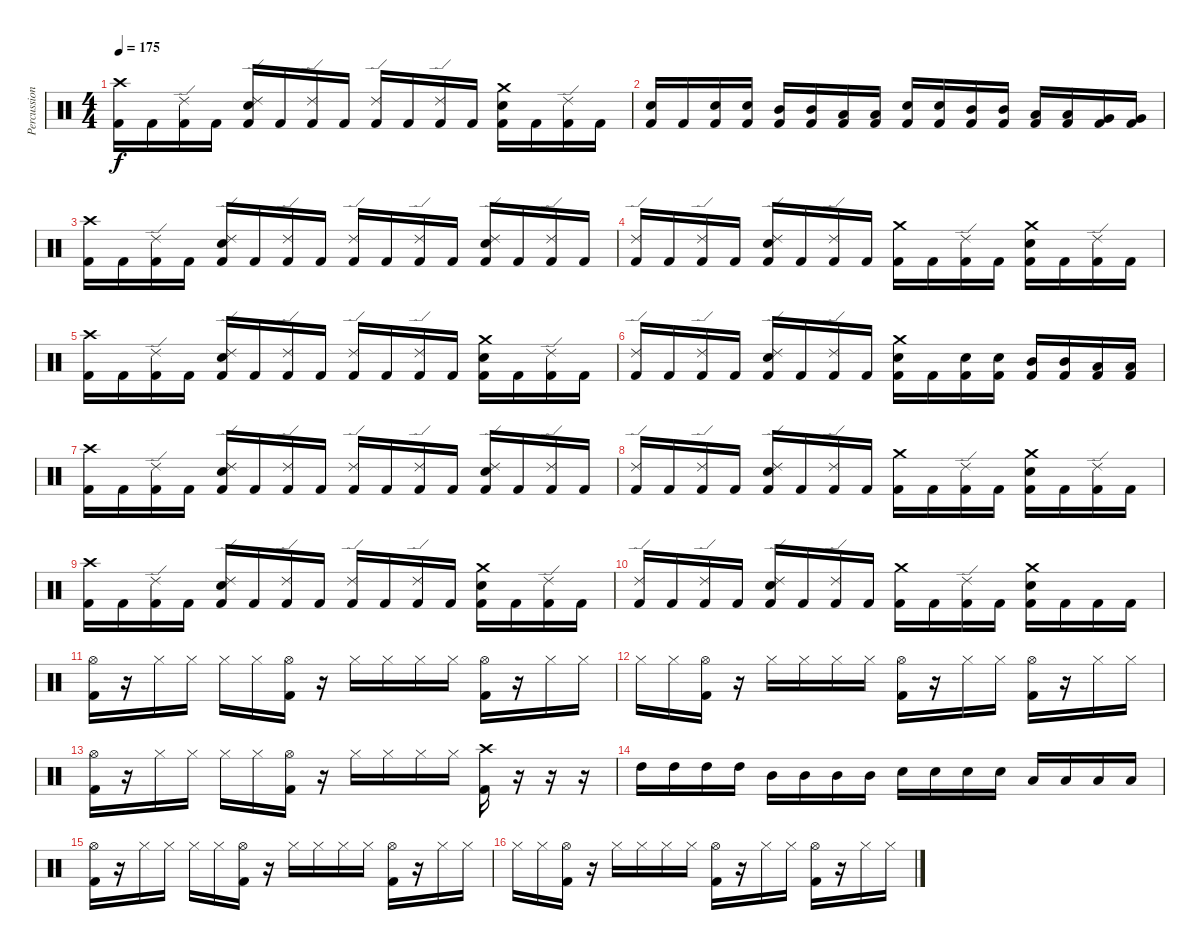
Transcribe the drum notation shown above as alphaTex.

\track ("Percussion" "Percussion") {instrument percussion}
\staff {score}
\articulation defaults
\ts (4 4)
\tempo 175
\clef neutral
\ks c
("Crash high (hit)" "Kick (hit) 2").16{dy f} "Kick (hit) 2".16 ("Ride (edge) 2" "Kick (hit) 2").16 "Kick (hit) 2".16 ("Ride (edge) 2" "Snare (hit) 2" "Kick (hit) 2").16 "Kick (hit) 2".16 ("Ride (edge) 2" "Kick (hit) 2").16 "Kick (hit) 2".16 ("Ride (edge) 2" "Kick (hit) 2").16 "Kick (hit) 2".16 ("Ride (edge) 2" "Kick (hit) 2").16 "Kick (hit) 2".16 ("Crash medium (hit)" "Snare (hit) 2" "Kick (hit) 2").16 "Kick (hit) 2".16 ("Ride (edge) 2" "Kick (hit) 2").16 "Kick (hit) 2".16 |
("Snare (hit) 2" "Kick (hit) 2").16 "Kick (hit) 2".16 ("Snare (hit) 2" "Kick (hit) 2").16 ("Snare (hit) 2" "Kick (hit) 2").16 ("Mid Tom (hit)" "Kick (hit) 2").16 ("Mid Tom (hit)" "Kick (hit) 2").16 ("Low Tom (hit)" "Kick (hit) 2").16 ("Low Tom (hit)" "Kick (hit) 2").16 ("Snare (hit) 2" "Kick (hit) 2").16 ("Snare (hit) 2" "Kick (hit) 2").16 ("Mid Tom (hit)" "Kick (hit) 2").16 ("Mid Tom (hit)" "Kick (hit) 2").16 ("Low Tom (hit)" "Kick (hit) 2").16 ("Low Tom (hit)" "Kick (hit) 2").16 ("Very Low Tom (hit)" "Kick (hit) 2").16 ("Very Low Tom (hit)" "Kick (hit) 2").16 |
("Crash high (hit)" "Kick (hit) 2").16 "Kick (hit) 2".16 ("Ride (edge) 2" "Kick (hit) 2").16 "Kick (hit) 2".16 ("Ride (edge) 2" "Snare (hit) 2" "Kick (hit) 2").16 "Kick (hit) 2".16 ("Ride (edge) 2" "Kick (hit) 2").16 "Kick (hit) 2".16 ("Ride (edge) 2" "Kick (hit) 2").16 "Kick (hit) 2".16 ("Ride (edge) 2" "Kick (hit) 2").16 "Kick (hit) 2".16 ("Ride (edge) 2" "Snare (hit) 2" "Kick (hit) 2").16 "Kick (hit) 2".16 ("Ride (edge) 2" "Kick (hit) 2").16 "Kick (hit) 2".16 |
("Ride (edge) 2" "Kick (hit) 2").16 "Kick (hit) 2".16 ("Ride (edge) 2" "Kick (hit) 2").16 "Kick (hit) 2".16 ("Ride (edge) 2" "Snare (hit) 2" "Kick (hit) 2").16 "Kick (hit) 2".16 ("Ride (edge) 2" "Kick (hit) 2").16 "Kick (hit) 2".16 ("Crash medium (hit)" "Kick (hit) 2").16 "Kick (hit) 2".16 ("Ride (edge) 2" "Kick (hit) 2").16 "Kick (hit) 2".16 ("Crash medium (hit)" "Snare (hit) 2" "Kick (hit) 2").16 "Kick (hit) 2".16 ("Ride (edge) 2" "Kick (hit) 2").16 "Kick (hit) 2".16 |
("Crash high (hit)" "Kick (hit) 2").16 "Kick (hit) 2".16 ("Ride (edge) 2" "Kick (hit) 2").16 "Kick (hit) 2".16 ("Ride (edge) 2" "Snare (hit) 2" "Kick (hit) 2").16 "Kick (hit) 2".16 ("Ride (edge) 2" "Kick (hit) 2").16 "Kick (hit) 2".16 ("Ride (edge) 2" "Kick (hit) 2").16 "Kick (hit) 2".16 ("Ride (edge) 2" "Kick (hit) 2").16 "Kick (hit) 2".16 ("Crash medium (hit)" "Snare (hit) 2" "Kick (hit) 2").16 "Kick (hit) 2".16 ("Ride (edge) 2" "Kick (hit) 2").16 "Kick (hit) 2".16 |
("Ride (edge) 2" "Kick (hit) 2").16 "Kick (hit) 2".16 ("Ride (edge) 2" "Kick (hit) 2").16 "Kick (hit) 2".16 ("Ride (edge) 2" "Snare (hit) 2" "Kick (hit) 2").16 "Kick (hit) 2".16 ("Ride (edge) 2" "Kick (hit) 2").16 "Kick (hit) 2".16 ("Crash medium (hit)" "Snare (hit) 2" "Kick (hit) 2").16 "Kick (hit) 2".16 ("Snare (hit) 2" "Kick (hit) 2").16 ("Snare (hit) 2" "Kick (hit) 2").16 ("Mid Tom (hit)" "Kick (hit) 2").16 ("Mid Tom (hit)" "Kick (hit) 2").16 ("Low Tom (hit)" "Kick (hit) 2").16 ("Low Tom (hit)" "Kick (hit) 2").16 |
("Crash high (hit)" "Kick (hit) 2").16 "Kick (hit) 2".16 ("Ride (edge) 2" "Kick (hit) 2").16 "Kick (hit) 2".16 ("Ride (edge) 2" "Snare (hit) 2" "Kick (hit) 2").16 "Kick (hit) 2".16 ("Ride (edge) 2" "Kick (hit) 2").16 "Kick (hit) 2".16 ("Ride (edge) 2" "Kick (hit) 2").16 "Kick (hit) 2".16 ("Ride (edge) 2" "Kick (hit) 2").16 "Kick (hit) 2".16 ("Ride (edge) 2" "Snare (hit) 2" "Kick (hit) 2").16 "Kick (hit) 2".16 ("Ride (edge) 2" "Kick (hit) 2").16 "Kick (hit) 2".16 |
("Ride (edge) 2" "Kick (hit) 2").16 "Kick (hit) 2".16 ("Ride (edge) 2" "Kick (hit) 2").16 "Kick (hit) 2".16 ("Ride (edge) 2" "Snare (hit) 2" "Kick (hit) 2").16 "Kick (hit) 2".16 ("Ride (edge) 2" "Kick (hit) 2").16 "Kick (hit) 2".16 ("Crash medium (hit)" "Kick (hit) 2").16 "Kick (hit) 2".16 ("Ride (edge) 2" "Kick (hit) 2").16 "Kick (hit) 2".16 ("Crash medium (hit)" "Snare (hit) 2" "Kick (hit) 2").16 "Kick (hit) 2".16 ("Ride (edge) 2" "Kick (hit) 2").16 "Kick (hit) 2".16 |
("Crash high (hit)" "Kick (hit) 2").16 "Kick (hit) 2".16 ("Ride (edge) 2" "Kick (hit) 2").16 "Kick (hit) 2".16 ("Ride (edge) 2" "Snare (hit) 2" "Kick (hit) 2").16 "Kick (hit) 2".16 ("Ride (edge) 2" "Kick (hit) 2").16 "Kick (hit) 2".16 ("Ride (edge) 2" "Kick (hit) 2").16 "Kick (hit) 2".16 ("Ride (edge) 2" "Kick (hit) 2").16 "Kick (hit) 2".16 ("Crash medium (hit)" "Snare (hit) 2" "Kick (hit) 2").16 "Kick (hit) 2".16 ("Ride (edge) 2" "Kick (hit) 2").16 "Kick (hit) 2".16 |
("Ride (edge) 2" "Kick (hit) 2").16 "Kick (hit) 2".16 ("Ride (edge) 2" "Kick (hit) 2").16 "Kick (hit) 2".16 ("Ride (edge) 2" "Snare (hit) 2" "Kick (hit) 2").16 "Kick (hit) 2".16 ("Ride (edge) 2" "Kick (hit) 2").16 "Kick (hit) 2".16 ("Crash medium (hit)" "Kick (hit) 2").16 "Kick (hit) 2".16 ("Ride (edge) 2" "Kick (hit) 2").16 "Kick (hit) 2".16 ("Crash medium (hit)" "Snare (hit) 2" "Kick (hit) 2").16 "Kick (hit) 2".16 "Kick (hit) 2".16 "Kick (hit) 2".16 |
("Hi-Hat (open)" "Kick (hit) 2").16 r.16 "Hi-Hat (closed)".16 "Hi-Hat (closed)".16 "Hi-Hat (closed)".16 "Hi-Hat (closed)".16 ("Hi-Hat (open)" "Kick (hit) 2").16 r.16 "Hi-Hat (closed)".16 "Hi-Hat (closed)".16 "Hi-Hat (closed)".16 "Hi-Hat (closed)".16 ("Hi-Hat (open)" "Kick (hit) 2").16 r.16 "Hi-Hat (closed)".16 "Hi-Hat (closed)".16 |
"Hi-Hat (closed)".16 "Hi-Hat (closed)".16 ("Hi-Hat (open)" "Kick (hit) 2").16 r.16 "Hi-Hat (closed)".16 "Hi-Hat (closed)".16 "Hi-Hat (closed)".16 "Hi-Hat (closed)".16 ("Hi-Hat (open)" "Kick (hit) 2").16 r.16 "Hi-Hat (closed)".16 "Hi-Hat (closed)".16 ("Hi-Hat (open)" "Kick (hit) 2").16 r.16 "Hi-Hat (closed)".16 "Hi-Hat (closed)".16 |
("Hi-Hat (open)" "Kick (hit) 2").16 r.16 "Hi-Hat (closed)".16 "Hi-Hat (closed)".16 "Hi-Hat (closed)".16 "Hi-Hat (closed)".16 ("Hi-Hat (open)" "Kick (hit) 2").16 r.16 "Hi-Hat (closed)".16 "Hi-Hat (closed)".16 "Hi-Hat (closed)".16 "Hi-Hat (closed)".16 ("Crash high (hit)" "Kick (hit) 2").16 r.16 r.16 r.16 |
"High Tom (hit)".16 "High Tom (hit)".16 "High Tom (hit)".16 "High Tom (hit)".16 "Mid Tom (hit)".16 "Mid Tom (hit)".16 "Mid Tom (hit)".16 "Mid Tom (hit)".16 "Snare (hit) 2".16 "Snare (hit) 2".16 "Snare (hit) 2".16 "Snare (hit) 2".16 "Low Tom (hit)".16 "Low Tom (hit)".16 "Low Tom (hit)".16 "Low Tom (hit)".16 |
("Hi-Hat (open)" "Kick (hit) 2").16 r.16 "Hi-Hat (closed)".16 "Hi-Hat (closed)".16 "Hi-Hat (closed)".16 "Hi-Hat (closed)".16 ("Hi-Hat (open)" "Kick (hit) 2").16 r.16 "Hi-Hat (closed)".16 "Hi-Hat (closed)".16 "Hi-Hat (closed)".16 "Hi-Hat (closed)".16 ("Hi-Hat (open)" "Kick (hit) 2").16 r.16 "Hi-Hat (closed)".16 "Hi-Hat (closed)".16 |
"Hi-Hat (closed)".16 "Hi-Hat (closed)".16 ("Hi-Hat (open)" "Kick (hit) 2").16 r.16 "Hi-Hat (closed)".16 "Hi-Hat (closed)".16 "Hi-Hat (closed)".16 "Hi-Hat (closed)".16 ("Hi-Hat (open)" "Kick (hit) 2").16 r.16 "Hi-Hat (closed)".16 "Hi-Hat (closed)".16 ("Hi-Hat (open)" "Kick (hit) 2").16 r.16 "Hi-Hat (closed)".16 "Hi-Hat (closed)".16
